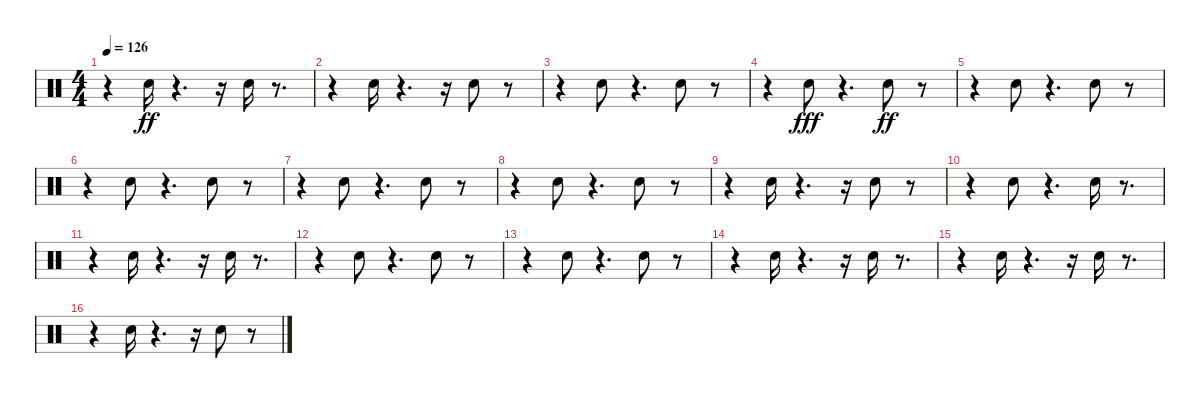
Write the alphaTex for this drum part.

\track "" {instrument percussion}
\staff {score}
\articulation defaults
\ts (4 4)
\tempo 126
\clef neutral
\ks c
r.4{dy ff} "Snare (hit) 2".16 r.4{d} r.16 "Snare (hit) 2".16 r.8{d} |
r.4 "Snare (hit) 2".16 r.4{d} r.16 "Snare (hit) 2".8 r.8 |
r.4 "Snare (hit) 2".8 r.4{d} "Snare (hit) 2".8 r.8 |
r.4 "Snare (hit) 2".8{dy fff} r.4{d} "Snare (hit) 2".8{dy ff} r.8 |
r.4 "Snare (hit) 2".8 r.4{d} "Snare (hit) 2".8 r.8 |
r.4 "Snare (hit) 2".8 r.4{d} "Snare (hit) 2".8 r.8 |
r.4 "Snare (hit) 2".8 r.4{d} "Snare (hit) 2".8 r.8 |
r.4 "Snare (hit) 2".8 r.4{d} "Snare (hit) 2".8 r.8 |
r.4 "Snare (hit) 2".16 r.4{d} r.16 "Snare (hit) 2".8 r.8 |
r.4 "Snare (hit) 2".8 r.4{d} "Snare (hit) 2".16 r.8{d} |
r.4 "Snare (hit) 2".16 r.4{d} r.16 "Snare (hit) 2".16 r.8{d} |
r.4 "Snare (hit) 2".8 r.4{d} "Snare (hit) 2".8 r.8 |
r.4 "Snare (hit) 2".8 r.4{d} "Snare (hit) 2".8 r.8 |
r.4 "Snare (hit) 2".16 r.4{d} r.16 "Snare (hit) 2".16 r.8{d} |
r.4 "Snare (hit) 2".16 r.4{d} r.16 "Snare (hit) 2".16 r.8{d} |
r.4 "Snare (hit) 2".16 r.4{d} r.16 "Snare (hit) 2".8 r.8
